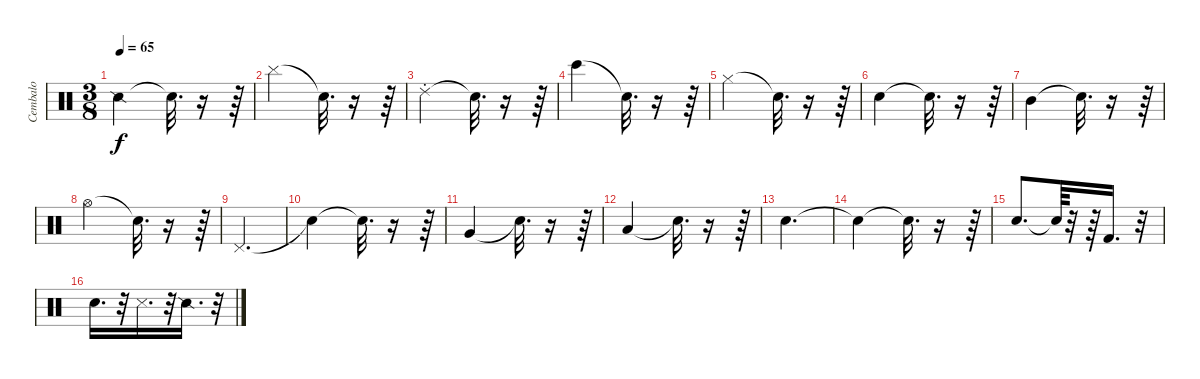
\track ("Cembalo" "Cembalo") {instrument percussion}
\staff {score}
\articulation defaults
\ts (3 8)
\tempo 65
\clef neutral
\ks c "Snare (side stick) 2".4{dy f} "Snare (hit)"{t}.32{d}
r.16 r.64 |
"Cymbal (hit)".4 "Snare (hit)"{t}.32{d} r.16 r.64 |
"Ride (choke) 2".4 "Snare (hit)"{t}.32{d} r.16 r.64 |
"Bongo High (hit)".4 "Snare (hit)"{t}.32{d} r.16 r.64 |
"Hi-Hat (closed)".4 "Snare (hit)"{t}.32{d} r.16 r.64 |
"Snare (hit)".4 "Snare (hit)"{t}.32{d} r.16 r.64 |
"Mid Tom (hit)".4 "Snare (hit)"{t}.32{d} r.16 r.64 |
"Hi-Hat (open)".4 "Snare (hit)"{t}.32{d} r.16 r.64 |
"Pedal Hi-Hat (hit)".4{d} |
"Snare (hit)"{t}.4 "Snare (hit)"{t}.32{d} r.16 r.64 |
"Very Low Tom (hit)".4 "Snare (hit)"{t}.32{d} r.16 r.64 |
"Low Floor Tom (hit)".4 "Snare (hit)"{t}.32{d} r.16 r.64 |
"Hand Clap (hit)".4{d} |
"Snare (hit)"{t}.4 "Snare (hit)"{t}.32{d} r.16 r.64 |
"Snare (hit) 2".8{d} "Snare (hit)"{t}.64 r.32 r.64 "Kick (hit) 2".16{d} r.32 |
"Metronome (bell)".16{d} r.32 "Metronome (hit)".16{d} r.32 "Snare (side stick) 2".16{d} r.32
